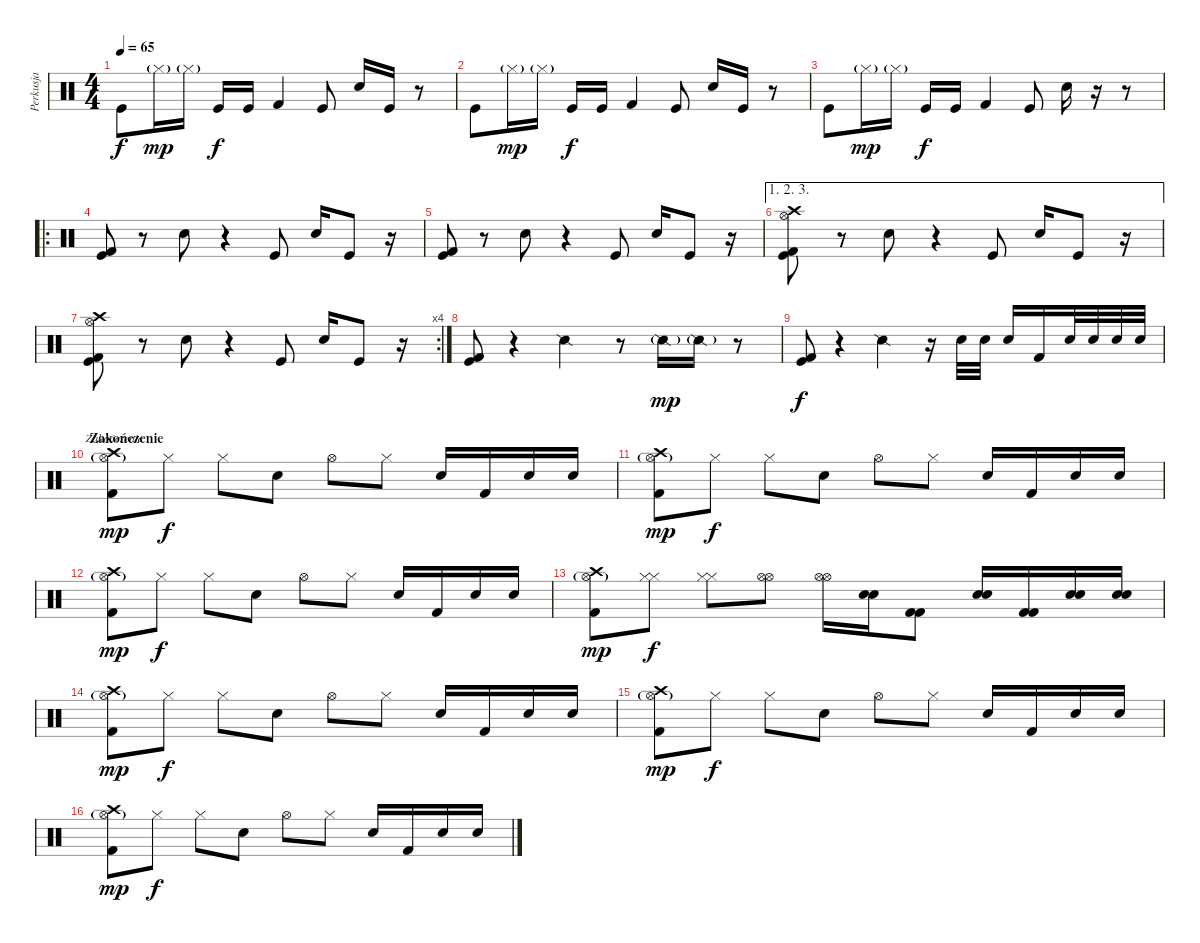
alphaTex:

\track ("Perkusja" "Perkusja") {instrument percussion}
\staff {score}
\articulation defaults
\chord ("Zakończenie")
\ts (4 4)
\tempo 65
\clef neutral
\ks c "Kick (hit)".8{dy f} "Hi-Hat (closed)"{g}.16{dy mp} "Hi-Hat (closed)"{g}.16 "Kick (hit)".16{dy f} "Kick (hit)".16 "Kick (hit) 2".4 "Kick (hit)".8 "Snare (hit) 2".16 "Kick (hit)".16
r.8 |
"Kick (hit)".8 "Hi-Hat (closed)"{g}.16{dy mp} "Hi-Hat (closed)"{g}.16 "Kick (hit)".16{dy f} "Kick (hit)".16 "Kick (hit) 2".4 "Kick (hit)".8 "Snare (hit) 2".16 "Kick (hit)".16 r.8 |
"Kick (hit)".8 "Hi-Hat (closed)"{g}.16{dy mp} "Hi-Hat (closed)"{g}.16 "Kick (hit)".16{dy f} "Kick (hit)".16 "Kick (hit) 2".4 "Kick (hit)".8 "Snare (hit) 2".16 r.16 r.8 |
\ro
("Kick (hit)" "Kick (hit) 2").8 r.8 "Snare (hit) 2".8 r.4 "Kick (hit)".8 "Snare (hit) 2".16 "Kick (hit)".8 r.16 |
("Kick (hit)" "Kick (hit) 2").8 r.8 "Snare (hit) 2".8 r.4 "Kick (hit)".8 "Snare (hit) 2".16 "Kick (hit)".8 r.16 |
\ae (1 2 3)
("Kick (hit)" "Kick (hit) 2" "Hi-Hat (open)" "Crash high (hit)").8 r.8 "Snare (hit) 2".8 r.4 "Kick (hit)".8 "Snare (hit) 2".16 "Kick (hit)".8 r.16 |
\rc 4
("Kick (hit)" "Kick (hit) 2" "Hi-Hat (open)" "Crash high (hit)").8 r.8 "Snare (hit) 2".8 r.4 "Kick (hit)".8 "Snare (hit) 2".16 "Kick (hit)".8 r.16 |
("Kick (hit)" "Kick (hit) 2").8 r.4 "Snare (side stick) 2".4 r.8 "Snare (side stick) 2"{g}.16{dy mp} "Snare (side stick) 2"{g}.16 r.8 |
("Kick (hit)" "Kick (hit) 2").8{dy f} r.4 "Snare (side stick) 2".4 r.16 "Electric Snare (hit)".32 "Electric Snare (hit)".32 "Electric Snare (hit)".16 "Kick (hit) 2".16 "Electric Snare (hit)".32 "Electric Snare (hit)".32 "Electric Snare (hit)".32 "Electric Snare (hit)".32 |
\section ("" "Zakończenie")
("Kick (hit) 2" "Hi-Hat (open)"{g} "Crash high (hit)").8{ch "Zakończenie" dy mp volume 13} "Hi-Hat (closed)".8{dy f} "Hi-Hat (closed)".8 "Snare (hit) 2".8 "Hi-Hat (open)".8 "Hi-Hat (closed)".8 "Snare (hit) 2".16 "Kick (hit) 2".16 "Snare (hit) 2".16 "Snare (hit) 2".16 |
("Kick (hit) 2" "Hi-Hat (open)"{g} "Crash high (hit)").8{dy mp} "Hi-Hat (closed)".8{dy f} "Hi-Hat (closed)".8 "Snare (hit) 2".8 "Hi-Hat (open)".8 "Hi-Hat (closed)".8 "Snare (hit) 2".16 "Kick (hit) 2".16 "Snare (hit) 2".16 "Snare (hit) 2".16 |
("Kick (hit) 2" "Hi-Hat (open)"{g} "Crash high (hit)").8{dy mp} "Hi-Hat (closed)".8{dy f} "Hi-Hat (closed)".8 "Snare (hit) 2".8 "Hi-Hat (open)".8 "Hi-Hat (closed)".8 "Snare (hit) 2".16 "Kick (hit) 2".16 "Snare (hit) 2".16 "Snare (hit) 2".16 |
("Kick (hit) 2" "Hi-Hat (open)"{g} "Crash high (hit)").8{dy mp} ("Hi-Hat (closed)" "Hi-Hat (closed)").8{dy f} ("Hi-Hat (closed)" "Hi-Hat (closed)").8 ("Hi-Hat (open)" "Hi-Hat (open)").8 ("Hi-Hat (open)" "Hi-Hat (open)").16 ("Snare (hit) 2" "Snare (hit) 2").16 ("Kick (hit) 2" "Kick (hit) 2").8 ("Snare (hit) 2" "Snare (hit) 2").16 ("Kick (hit) 2" "Kick (hit) 2").16 ("Snare (hit) 2" "Snare (hit) 2").16 ("Snare (hit) 2" "Snare (hit) 2").16 |
("Kick (hit) 2" "Hi-Hat (open)"{g} "Crash high (hit)").8{dy mp volume 13} "Hi-Hat (closed)".8{dy f} "Hi-Hat (closed)".8 "Snare (hit) 2".8 "Hi-Hat (open)".8 "Hi-Hat (closed)".8 "Snare (hit) 2".16 "Kick (hit) 2".16 "Snare (hit) 2".16 "Snare (hit) 2".16 |
("Kick (hit) 2" "Hi-Hat (open)"{g} "Crash high (hit)").8{dy mp} "Hi-Hat (closed)".8{dy f} "Hi-Hat (closed)".8 "Snare (hit) 2".8 "Hi-Hat (open)".8 "Hi-Hat (closed)".8 "Snare (hit) 2".16 "Kick (hit) 2".16 "Snare (hit) 2".16 "Snare (hit) 2".16 |
("Kick (hit) 2" "Hi-Hat (open)"{g} "Crash high (hit)").8{dy mp} "Hi-Hat (closed)".8{dy f} "Hi-Hat (closed)".8 "Snare (hit) 2".8 "Hi-Hat (open)".8 "Hi-Hat (closed)".8 "Snare (hit) 2".16 "Kick (hit) 2".16 "Snare (hit) 2".16 "Snare (hit) 2".16
